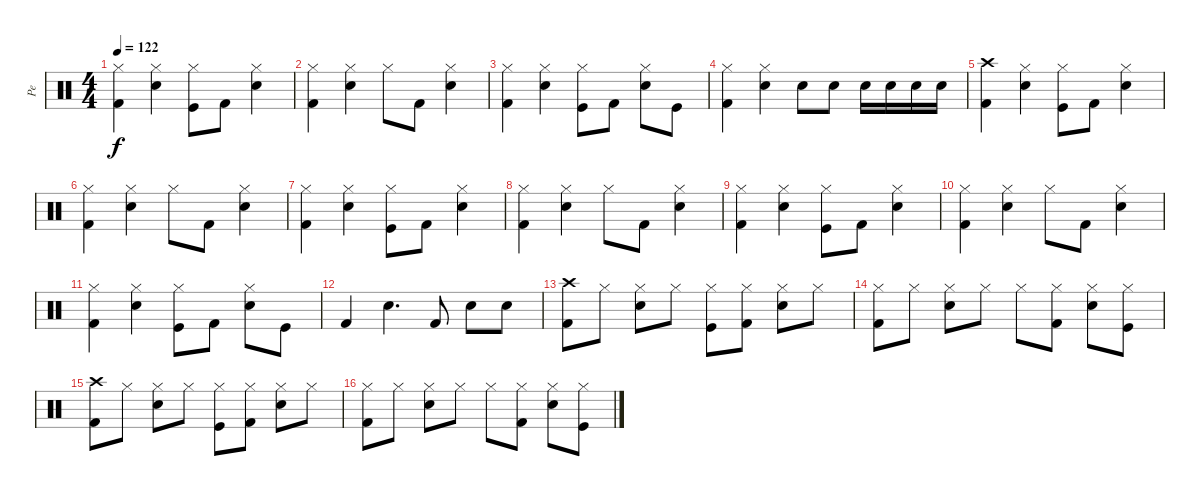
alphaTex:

\track ("Pe" "Pe") {instrument percussion}
\staff {score}
\articulation defaults
\ts (4 4)
\tempo 122
\clef neutral
\ks c
("Kick (hit) 2" "Hi-Hat (closed)").4{dy f} ("Electric Snare (hit)" "Hi-Hat (closed)").4 ("Kick (hit)" "Hi-Hat (closed)").8 "Kick (hit) 2".8 ("Electric Snare (hit)" "Hi-Hat (closed)").4 |
("Kick (hit) 2" "Hi-Hat (closed)").4 ("Electric Snare (hit)" "Hi-Hat (closed)").4 "Hi-Hat (closed)".8 "Kick (hit) 2".8 ("Electric Snare (hit)" "Hi-Hat (closed)").4 |
("Kick (hit) 2" "Hi-Hat (closed)").4 ("Electric Snare (hit)" "Hi-Hat (closed)").4 ("Kick (hit)" "Hi-Hat (closed)").8 "Kick (hit) 2".8 ("Electric Snare (hit)" "Hi-Hat (closed)").8 "Kick (hit)".8 |
("Kick (hit) 2" "Hi-Hat (closed)").4 ("Electric Snare (hit)" "Hi-Hat (closed)").4 "Electric Snare (hit)".8 "Electric Snare (hit)".8 "Electric Snare (hit)".16 "Electric Snare (hit)".16 "Electric Snare (hit)".16 "Electric Snare (hit)".16 |
("Kick (hit) 2" "Crash high (hit)").4 ("Electric Snare (hit)" "Hi-Hat (closed)").4 ("Kick (hit)" "Hi-Hat (closed)").8 "Kick (hit) 2".8 ("Electric Snare (hit)" "Hi-Hat (closed)").4 |
("Kick (hit) 2" "Hi-Hat (closed)").4 ("Electric Snare (hit)" "Hi-Hat (closed)").4 "Hi-Hat (closed)".8 "Kick (hit) 2".8 ("Electric Snare (hit)" "Hi-Hat (closed)").4 |
("Kick (hit) 2" "Hi-Hat (closed)").4 ("Electric Snare (hit)" "Hi-Hat (closed)").4 ("Kick (hit)" "Hi-Hat (closed)").8 "Kick (hit) 2".8 ("Electric Snare (hit)" "Hi-Hat (closed)").4 |
("Kick (hit) 2" "Hi-Hat (closed)").4 ("Electric Snare (hit)" "Hi-Hat (closed)").4 "Hi-Hat (closed)".8 "Kick (hit) 2".8 ("Electric Snare (hit)" "Hi-Hat (closed)").4 |
("Kick (hit) 2" "Hi-Hat (closed)").4 ("Electric Snare (hit)" "Hi-Hat (closed)").4 ("Kick (hit)" "Hi-Hat (closed)").8 "Kick (hit) 2".8 ("Electric Snare (hit)" "Hi-Hat (closed)").4 |
("Kick (hit) 2" "Hi-Hat (closed)").4 ("Electric Snare (hit)" "Hi-Hat (closed)").4 "Hi-Hat (closed)".8 "Kick (hit) 2".8 ("Electric Snare (hit)" "Hi-Hat (closed)").4 |
("Kick (hit) 2" "Hi-Hat (closed)").4 ("Electric Snare (hit)" "Hi-Hat (closed)").4 ("Kick (hit)" "Hi-Hat (closed)").8 "Kick (hit) 2".8 ("Electric Snare (hit)" "Hi-Hat (closed)").8 "Kick (hit)".8 |
"Kick (hit) 2".4 "Electric Snare (hit)".4{d} "Kick (hit) 2".8 "Electric Snare (hit)".8 "Electric Snare (hit)".8 |
("Kick (hit) 2" "Crash high (hit)").8 "Hi-Hat (closed)".8 ("Electric Snare (hit)" "Hi-Hat (closed)").8 "Hi-Hat (closed)".8 ("Kick (hit)" "Hi-Hat (closed)").8 ("Kick (hit) 2" "Hi-Hat (closed)").8 ("Electric Snare (hit)" "Hi-Hat (closed)").8 "Hi-Hat (closed)".8 |
("Kick (hit) 2" "Hi-Hat (closed)").8 "Hi-Hat (closed)".8 ("Electric Snare (hit)" "Hi-Hat (closed)").8 "Hi-Hat (closed)".8 "Hi-Hat (closed)".8 ("Kick (hit) 2" "Hi-Hat (closed)").8 ("Electric Snare (hit)" "Hi-Hat (closed)").8 ("Kick (hit)" "Hi-Hat (closed)").8 |
("Kick (hit) 2" "Crash high (hit)").8 "Hi-Hat (closed)".8 ("Electric Snare (hit)" "Hi-Hat (closed)").8 "Hi-Hat (closed)".8 ("Kick (hit)" "Hi-Hat (closed)").8 ("Kick (hit) 2" "Hi-Hat (closed)").8 ("Electric Snare (hit)" "Hi-Hat (closed)").8 "Hi-Hat (closed)".8 |
("Kick (hit) 2" "Hi-Hat (closed)").8 "Hi-Hat (closed)".8 ("Electric Snare (hit)" "Hi-Hat (closed)").8 "Hi-Hat (closed)".8 "Hi-Hat (closed)".8 ("Kick (hit) 2" "Hi-Hat (closed)").8 ("Electric Snare (hit)" "Hi-Hat (closed)").8 ("Kick (hit)" "Hi-Hat (closed)").8
